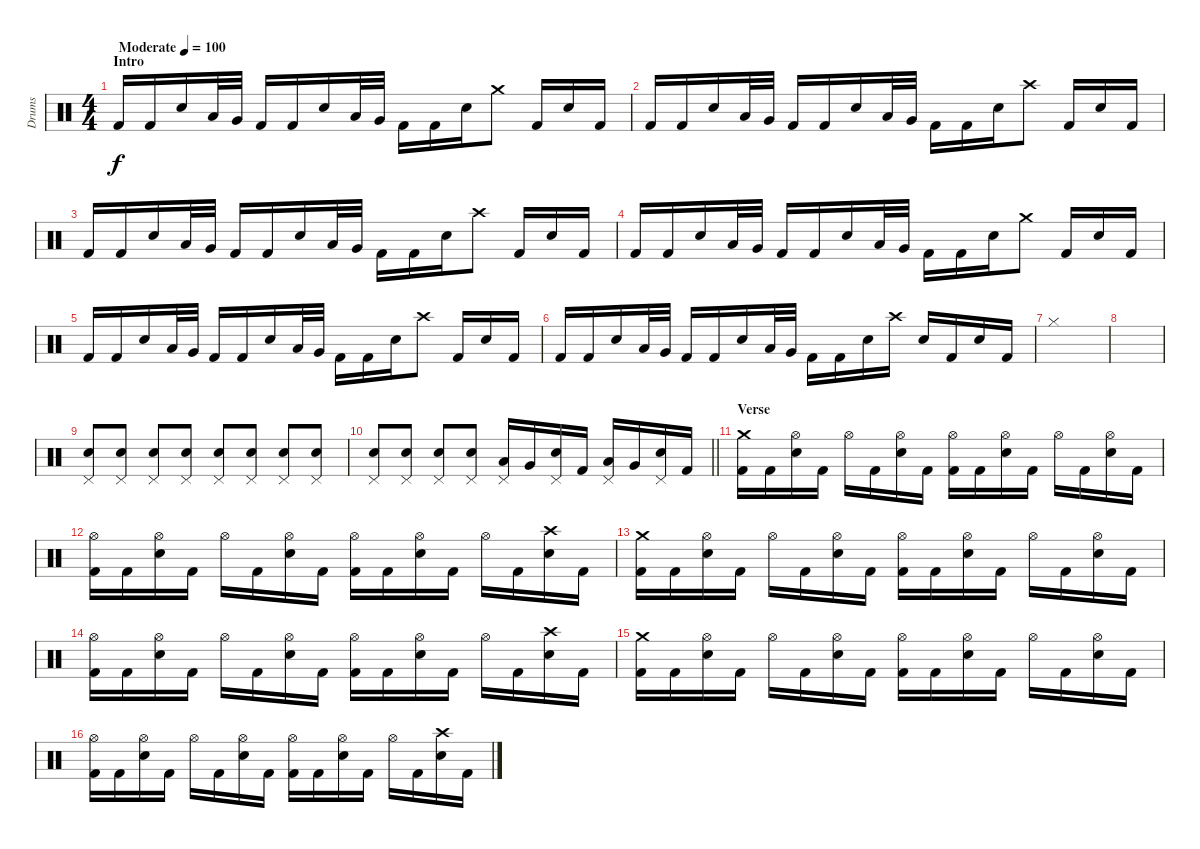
\track ("Drums" "Drums") {instrument percussion}
\staff {score}
\articulation defaults
\ts (4 4)
\section ("" "Intro")
\tempo (100 "Moderate")
\clef neutral
\ks c "Kick (hit) 2".16{dy f} "Kick (hit) 2".16 "Electric Snare (hit)".16 "Low Tom (hit)".32 "Very Low Tom (hit)".32 "Kick (hit) 2".16 "Kick (hit) 2".16 "Electric Snare (hit)".16 "Low Tom (hit)".32 "Very Low Tom (hit)".32 "Kick (hit) 2".16 "Kick (hit) 2".16 "Electric Snare (hit)".16 "Crash medium (hit)".8 "Kick (hit) 2".16 "Electric Snare (hit)".16 "Kick (hit) 2".16
|
"Kick (hit) 2".16 "Kick (hit) 2".16 "Electric Snare (hit)".16 "Low Tom (hit)".32 "Very Low Tom (hit)".32 "Kick (hit) 2".16 "Kick (hit) 2".16 "Electric Snare (hit)".16 "Low Tom (hit)".32 "Very Low Tom (hit)".32 "Kick (hit) 2".16 "Kick (hit) 2".16 "Electric Snare (hit)".16 "Crash high (hit)".8 "Kick (hit) 2".16 "Electric Snare (hit)".16 "Kick (hit) 2".16 |
"Kick (hit) 2".16 "Kick (hit) 2".16 "Electric Snare (hit)".16 "Low Tom (hit)".32 "Very Low Tom (hit)".32 "Kick (hit) 2".16 "Kick (hit) 2".16 "Electric Snare (hit)".16 "Low Tom (hit)".32 "Very Low Tom (hit)".32 "Kick (hit) 2".16 "Kick (hit) 2".16 "Electric Snare (hit)".16 "Crash high (hit)".8 "Kick (hit) 2".16 "Electric Snare (hit)".16 "Kick (hit) 2".16 |
"Kick (hit) 2".16 "Kick (hit) 2".16 "Electric Snare (hit)".16 "Low Tom (hit)".32 "Very Low Tom (hit)".32 "Kick (hit) 2".16 "Kick (hit) 2".16 "Electric Snare (hit)".16 "Low Tom (hit)".32 "Very Low Tom (hit)".32 "Kick (hit) 2".16 "Kick (hit) 2".16 "Electric Snare (hit)".16 "Crash medium (hit)".8 "Kick (hit) 2".16 "Electric Snare (hit)".16 "Kick (hit) 2".16 |
"Kick (hit) 2".16 "Kick (hit) 2".16 "Electric Snare (hit)".16 "Low Tom (hit)".32 "Very Low Tom (hit)".32 "Kick (hit) 2".16 "Kick (hit) 2".16 "Electric Snare (hit)".16 "Low Tom (hit)".32 "Very Low Tom (hit)".32 "Kick (hit) 2".16 "Kick (hit) 2".16 "Electric Snare (hit)".16 "Crash high (hit)".8 "Kick (hit) 2".16 "Electric Snare (hit)".16 "Kick (hit) 2".16 |
"Kick (hit) 2".16 "Kick (hit) 2".16 "Electric Snare (hit)".16 "Low Tom (hit)".32 "Very Low Tom (hit)".32 "Kick (hit) 2".16 "Kick (hit) 2".16 "Electric Snare (hit)".16 "Low Tom (hit)".32 "Very Low Tom (hit)".32 "Kick (hit) 2".16 "Kick (hit) 2".16 "Electric Snare (hit)".16 "Crash high (hit)".16 "Electric Snare (hit)".16 "Kick (hit) 2".16 "Electric Snare (hit)".16 "Kick (hit) 2".16 |
"Hi-Hat (closed)".1 |
|
("Pedal Hi-Hat (hit)" "Electric Snare (hit)").8 ("Pedal Hi-Hat (hit)" "Electric Snare (hit)").8 ("Pedal Hi-Hat (hit)" "Electric Snare (hit)").8 ("Pedal Hi-Hat (hit)" "Electric Snare (hit)").8 ("Pedal Hi-Hat (hit)" "Electric Snare (hit)").8 ("Pedal Hi-Hat (hit)" "Electric Snare (hit)").8 ("Pedal Hi-Hat (hit)" "Electric Snare (hit)").8 ("Pedal Hi-Hat (hit)" "Electric Snare (hit)").8 |
\barLineRight lightlight
("Pedal Hi-Hat (hit)" "Electric Snare (hit)").8 ("Pedal Hi-Hat (hit)" "Electric Snare (hit)").8 ("Pedal Hi-Hat (hit)" "Electric Snare (hit)").8 ("Pedal Hi-Hat (hit)" "Electric Snare (hit)").8 ("Pedal Hi-Hat (hit)" "Low Tom (hit)").16 "Very Low Tom (hit)".16 ("Pedal Hi-Hat (hit)" "Electric Snare (hit)").16 "Kick (hit) 2".16 ("Pedal Hi-Hat (hit)" "Low Tom (hit)").16 "Very Low Tom (hit)".16 ("Pedal Hi-Hat (hit)" "Electric Snare (hit)").16 "Kick (hit) 2".16 |
\section ("" "Verse")
("Crash medium (hit)" "Kick (hit) 2").16 "Kick (hit) 2".16 ("Hi-Hat (open)" "Electric Snare (hit)").16 "Kick (hit) 2".16 "Hi-Hat (open)".16 "Kick (hit) 2".16 ("Hi-Hat (open)" "Electric Snare (hit)").16 "Kick (hit) 2".16 ("Hi-Hat (open)" "Kick (hit) 2").16 "Kick (hit) 2".16 ("Hi-Hat (open)" "Electric Snare (hit)").16 "Kick (hit) 2".16 "Hi-Hat (open)".16 "Kick (hit) 2".16 ("Hi-Hat (open)" "Electric Snare (hit)").16 "Kick (hit) 2".16 |
("Hi-Hat (open)" "Kick (hit) 2").16 "Kick (hit) 2".16 ("Hi-Hat (open)" "Electric Snare (hit)").16 "Kick (hit) 2".16 "Hi-Hat (open)".16 "Kick (hit) 2".16 ("Hi-Hat (open)" "Electric Snare (hit)").16 "Kick (hit) 2".16 ("Hi-Hat (open)" "Kick (hit) 2").16 "Kick (hit) 2".16 ("Hi-Hat (open)" "Electric Snare (hit)").16 "Kick (hit) 2".16 "Hi-Hat (open)".16 "Kick (hit) 2".16 ("Crash high (hit)" "Electric Snare (hit)").16 "Kick (hit) 2".16 |
("Crash medium (hit)" "Kick (hit) 2").16 "Kick (hit) 2".16 ("Hi-Hat (open)" "Electric Snare (hit)").16 "Kick (hit) 2".16 "Hi-Hat (open)".16 "Kick (hit) 2".16 ("Hi-Hat (open)" "Electric Snare (hit)").16 "Kick (hit) 2".16 ("Hi-Hat (open)" "Kick (hit) 2").16 "Kick (hit) 2".16 ("Hi-Hat (open)" "Electric Snare (hit)").16 "Kick (hit) 2".16 "Hi-Hat (open)".16 "Kick (hit) 2".16 ("Hi-Hat (open)" "Electric Snare (hit)").16 "Kick (hit) 2".16 |
("Hi-Hat (open)" "Kick (hit) 2").16 "Kick (hit) 2".16 ("Hi-Hat (open)" "Electric Snare (hit)").16 "Kick (hit) 2".16 "Hi-Hat (open)".16 "Kick (hit) 2".16 ("Hi-Hat (open)" "Electric Snare (hit)").16 "Kick (hit) 2".16 ("Hi-Hat (open)" "Kick (hit) 2").16 "Kick (hit) 2".16 ("Hi-Hat (open)" "Electric Snare (hit)").16 "Kick (hit) 2".16 "Hi-Hat (open)".16 "Kick (hit) 2".16 ("Crash high (hit)" "Electric Snare (hit)").16 "Kick (hit) 2".16 |
("Crash medium (hit)" "Kick (hit) 2").16 "Kick (hit) 2".16 ("Hi-Hat (open)" "Electric Snare (hit)").16 "Kick (hit) 2".16 "Hi-Hat (open)".16 "Kick (hit) 2".16 ("Hi-Hat (open)" "Electric Snare (hit)").16 "Kick (hit) 2".16 ("Hi-Hat (open)" "Kick (hit) 2").16 "Kick (hit) 2".16 ("Hi-Hat (open)" "Electric Snare (hit)").16 "Kick (hit) 2".16 "Hi-Hat (open)".16 "Kick (hit) 2".16 ("Hi-Hat (open)" "Electric Snare (hit)").16 "Kick (hit) 2".16 |
("Hi-Hat (open)" "Kick (hit) 2").16 "Kick (hit) 2".16 ("Hi-Hat (open)" "Electric Snare (hit)").16 "Kick (hit) 2".16 "Hi-Hat (open)".16 "Kick (hit) 2".16 ("Hi-Hat (open)" "Electric Snare (hit)").16 "Kick (hit) 2".16 ("Hi-Hat (open)" "Kick (hit) 2").16 "Kick (hit) 2".16 ("Hi-Hat (open)" "Electric Snare (hit)").16 "Kick (hit) 2".16 "Hi-Hat (open)".16 "Kick (hit) 2".16 ("Crash high (hit)" "Electric Snare (hit)").16 "Kick (hit) 2".16
